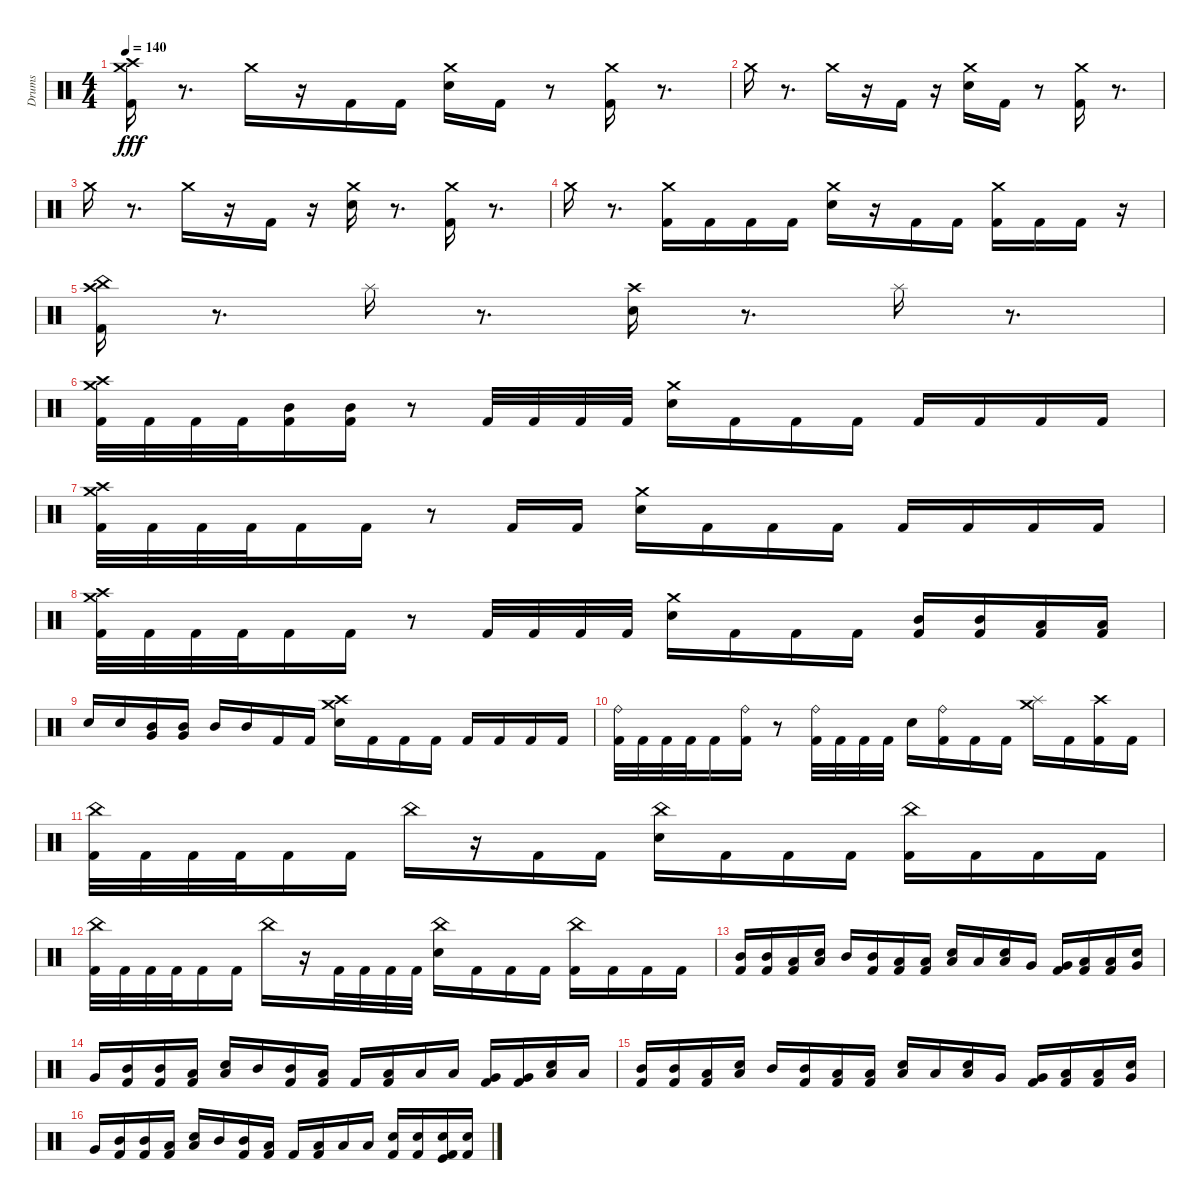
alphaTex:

\track ("Drums" "Drums") {instrument percussion}
\staff {score}
\articulation defaults
\ts (4 4)
\tempo 140
\clef neutral
\ks c
("Crash high (hit)" "Crash medium (hit)" "Kick (hit) 2").16{dy fff} r.8{d} "Crash medium (hit)".16 r.16 "Kick (hit) 2".16 "Kick (hit) 2".16 ("Crash medium (hit)" "Snare (hit) 2").16 "Kick (hit) 2".16 r.8 ("Crash medium (hit)" "Kick (hit) 2").16 r.8{d} |
"Crash medium (hit)".16 r.8{d} "Crash medium (hit)".16 r.16 "Kick (hit) 2".16 r.16 ("Crash medium (hit)" "Snare (hit) 2").16 "Kick (hit) 2".16 r.8 ("Crash medium (hit)" "Kick (hit) 2").16 r.8{d} |
"Crash medium (hit)".16 r.8{d} "Crash medium (hit)".16 r.16 "Kick (hit) 2".16 r.16 ("Crash medium (hit)" "Snare (hit) 2").16 r.8{d} ("Crash medium (hit)" "Kick (hit) 2").16 r.8{d} |
"Crash medium (hit)".16 r.8{d} ("Crash medium (hit)" "Kick (hit) 2").16 "Kick (hit) 2".16 "Kick (hit) 2".16 "Kick (hit) 2".16 ("Crash medium (hit)" "Snare (hit) 2").16 r.16 "Kick (hit) 2".16 "Kick (hit) 2".16 ("Crash medium (hit)" "Kick (hit) 2").16 "Kick (hit) 2".16 "Kick (hit) 2".16 r.16 |
("Crash high (hit)" "China (hit)" "Kick (hit) 2").16 r.8{d} "Splash (hit)".16 r.8{d} ("Crash high (hit)" "Snare (hit) 2").16 r.8{d} "Splash (hit)".16 r.8{d} |
("Crash high (hit)" "Crash medium (hit)" "Kick (hit) 2").32 "Kick (hit) 2".32 "Kick (hit) 2".32 "Kick (hit) 2".32 ("Kick (hit) 2" "Mid Tom (hit)").16 ("Kick (hit) 2" "Mid Tom (hit)").16 r.8 "Kick (hit) 2".32 "Kick (hit) 2".32 "Kick (hit) 2".32 "Kick (hit) 2".32 ("Crash medium (hit)" "Snare (hit) 2").16 "Kick (hit) 2".16 "Kick (hit) 2".16 "Kick (hit) 2".16 "Kick (hit) 2".16 "Kick (hit) 2".16 "Kick (hit) 2".16 "Kick (hit) 2".16 |
("Crash medium (hit)" "Crash high (hit)" "Kick (hit) 2").32 "Kick (hit) 2".32 "Kick (hit) 2".32 "Kick (hit) 2".32 "Kick (hit) 2".16 "Kick (hit) 2".16 r.8 "Kick (hit) 2".16 "Kick (hit) 2".16 ("Crash medium (hit)" "Snare (hit) 2").16 "Kick (hit) 2".16 "Kick (hit) 2".16 "Kick (hit) 2".16 "Kick (hit) 2".16 "Kick (hit) 2".16 "Kick (hit) 2".16 "Kick (hit) 2".16 |
("Crash medium (hit)" "Crash high (hit)" "Kick (hit) 2").32 "Kick (hit) 2".32 "Kick (hit) 2".32 "Kick (hit) 2".32 "Kick (hit) 2".16 "Kick (hit) 2".16 r.8 "Kick (hit) 2".32 "Kick (hit) 2".32 "Kick (hit) 2".32 "Kick (hit) 2".32 ("Crash medium (hit)" "Snare (hit) 2").16 "Kick (hit) 2".16 "Kick (hit) 2".16 "Kick (hit) 2".16 ("Kick (hit) 2" "Mid Tom (hit)").16 ("Kick (hit) 2" "Mid Tom (hit)").16 ("Kick (hit) 2" "Low Tom (hit)").16 ("Kick (hit) 2" "Low Tom (hit)").16 |
"Snare (hit) 2".16 "Snare (hit) 2".16 ("Very Low Tom (hit)" "Mid Tom (hit)").16 ("Very Low Tom (hit)" "Mid Tom (hit)").16 "Mid Tom (hit)".16 "Mid Tom (hit)".16 "Kick (hit) 2".16 "Kick (hit) 2".16 ("Crash medium (hit)" "Crash high (hit)" "Snare (hit) 2").16 "Kick (hit) 2".16 "Kick (hit) 2".16 "Kick (hit) 2".16 "Kick (hit) 2".16 "Kick (hit) 2".16 "Kick (hit) 2".16 "Kick (hit) 2".16 |
("Kick (hit) 2" "Ride (bell)").32 "Kick (hit) 2".32 "Kick (hit) 2".32 "Kick (hit) 2".32 "Kick (hit) 2".16 ("Kick (hit) 2" "Ride (bell)").16 r.8 ("Kick (hit) 2" "Ride (bell)").32 "Kick (hit) 2".32 "Kick (hit) 2".32 "Kick (hit) 2".32 "Snare (hit) 2".16 ("Kick (hit) 2" "Ride (bell)").16 "Kick (hit) 2".16 "Kick (hit) 2".16 ("Splash (hit)" "Crash medium (hit)").16 "Kick (hit) 2".16 ("Kick (hit) 2" "Crash high (hit)").16 "Kick (hit) 2".16 |
("China (hit)" "Kick (hit) 2").32 "Kick (hit) 2".32 "Kick (hit) 2".32 "Kick (hit) 2".32 "Kick (hit) 2".16 "Kick (hit) 2".16 "China (hit)".16 r.16 "Kick (hit) 2".16 "Kick (hit) 2".16 ("China (hit)" "Snare (hit) 2").16 "Kick (hit) 2".16 "Kick (hit) 2".16 "Kick (hit) 2".16 ("China (hit)" "Kick (hit) 2").16 "Kick (hit) 2".16 "Kick (hit) 2".16 "Kick (hit) 2".16 |
("China (hit)" "Kick (hit) 2").32 "Kick (hit) 2".32 "Kick (hit) 2".32 "Kick (hit) 2".32 "Kick (hit) 2".16 "Kick (hit) 2".16 "China (hit)".16 r.16 "Kick (hit) 2".32 "Kick (hit) 2".32 "Kick (hit) 2".32 "Kick (hit) 2".32 ("China (hit)" "Snare (hit) 2").16 "Kick (hit) 2".16 "Kick (hit) 2".16 "Kick (hit) 2".16 ("China (hit)" "Kick (hit) 2").16 "Kick (hit) 2".16 "Kick (hit) 2".16 "Kick (hit) 2".16 |
("Kick (hit) 2" "Mid Tom (hit)").16 ("Kick (hit) 2" "Mid Tom (hit)").16 ("Kick (hit) 2" "Low Tom (hit)").16 ("Snare (hit) 2" "Low Tom (hit)").16 "Mid Tom (hit)".16 ("Kick (hit) 2" "Mid Tom (hit)").16 ("Kick (hit) 2" "Low Tom (hit)").16 ("Kick (hit) 2" "Low Tom (hit)").16 ("Snare (hit) 2" "Low Tom (hit)").16 "Low Tom (hit)".16 ("Snare (hit) 2" "Low Tom (hit)").16 "Very Low Tom (hit)".16 ("Kick (hit) 2" "Very Low Tom (hit)").16 ("Kick (hit) 2" "Low Tom (hit)").16 ("Kick (hit) 2" "Low Tom (hit)").16 ("Snare (hit) 2" "Very Low Tom (hit)").16 |
"Very Low Tom (hit)".16 ("Kick (hit) 2" "Mid Tom (hit)").16 ("Kick (hit) 2" "Mid Tom (hit)").16 ("Kick (hit) 2" "Low Tom (hit)").16 ("Snare (hit) 2" "Low Tom (hit)").16 "Mid Tom (hit)".16 ("Kick (hit) 2" "Mid Tom (hit)").16 ("Kick (hit) 2" "Low Tom (hit)").16 "Kick (hit) 2".16 ("Kick (hit) 2" "Low Tom (hit)").16 "Low Tom (hit)".16 "Low Tom (hit)".16 ("Kick (hit) 2" "Very Low Tom (hit)").16 ("Kick (hit) 2" "Very Low Tom (hit)").16 ("Snare (hit) 2" "Low Tom (hit)").16 "Low Tom (hit)".16 |
("Kick (hit) 2" "Mid Tom (hit)").16 ("Kick (hit) 2" "Mid Tom (hit)").16 ("Kick (hit) 2" "Low Tom (hit)").16 ("Snare (hit) 2" "Low Tom (hit)").16 "Mid Tom (hit)".16 ("Kick (hit) 2" "Mid Tom (hit)").16 ("Kick (hit) 2" "Low Tom (hit)").16 ("Kick (hit) 2" "Low Tom (hit)").16 ("Snare (hit) 2" "Low Tom (hit)").16 "Low Tom (hit)".16 ("Snare (hit) 2" "Low Tom (hit)").16 "Very Low Tom (hit)".16 ("Kick (hit) 2" "Very Low Tom (hit)").16 ("Kick (hit) 2" "Low Tom (hit)").16 ("Kick (hit) 2" "Low Tom (hit)").16 ("Snare (hit) 2" "Very Low Tom (hit)").16 |
"Very Low Tom (hit)".16 ("Kick (hit) 2" "Mid Tom (hit)").16 ("Kick (hit) 2" "Mid Tom (hit)").16 ("Kick (hit) 2" "Low Tom (hit)").16 ("Snare (hit) 2" "Low Tom (hit)").16 "Mid Tom (hit)".16 ("Kick (hit) 2" "Mid Tom (hit)").16 ("Kick (hit) 2" "Low Tom (hit)").16 "Kick (hit) 2".16 ("Kick (hit) 2" "Low Tom (hit)").16 "Low Tom (hit)".16 "Low Tom (hit)".16 ("Kick (hit) 2" "Snare (hit) 2").16 ("Kick (hit) 2" "Snare (hit) 2").16 ("Kick (hit)" "Kick (hit) 2" "Snare (hit) 2").16 ("Kick (hit) 2" "Snare (hit) 2").16
